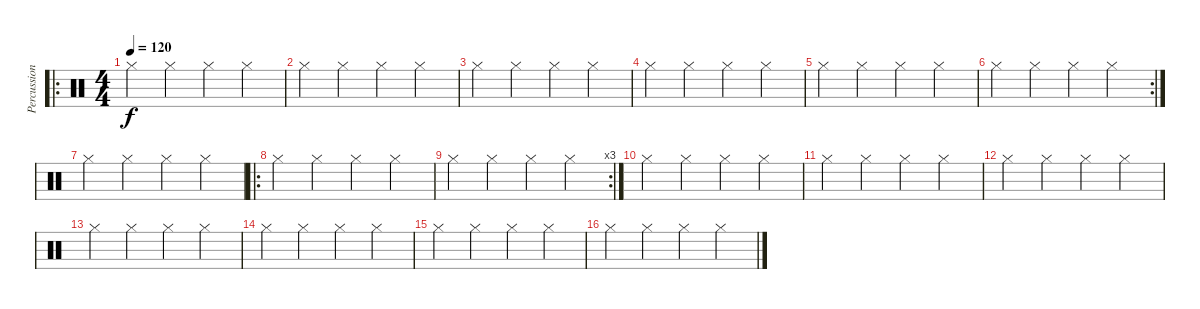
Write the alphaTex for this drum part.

\track ("Percussioni" "Percussion") {instrument percussion}
\staff {score}
\articulation defaults
\ro
\ts (4 4)
\tempo 120
\clef neutral
\ks c "Hi-Hat (closed)".4{dy f} "Hi-Hat (closed)".4 "Hi-Hat (closed)".4 "Hi-Hat (closed)".4
|
"Hi-Hat (closed)".4 "Hi-Hat (closed)".4 "Hi-Hat (closed)".4 "Hi-Hat (closed)".4 |
"Hi-Hat (closed)".4 "Hi-Hat (closed)".4 "Hi-Hat (closed)".4 "Hi-Hat (closed)".4 |
"Hi-Hat (closed)".4 "Hi-Hat (closed)".4 "Hi-Hat (closed)".4 "Hi-Hat (closed)".4 |
"Hi-Hat (closed)".4 "Hi-Hat (closed)".4 "Hi-Hat (closed)".4 "Hi-Hat (closed)".4 |
\rc 2 "Hi-Hat (closed)".4 "Hi-Hat (closed)".4 "Hi-Hat (closed)".4 "Hi-Hat (closed)".4
|
"Hi-Hat (closed)".4 "Hi-Hat (closed)".4 "Hi-Hat (closed)".4 "Hi-Hat (closed)".4 |
\ro "Hi-Hat (closed)".4 "Hi-Hat (closed)".4 "Hi-Hat (closed)".4 "Hi-Hat (closed)".4
|
\rc 3 "Hi-Hat (closed)".4 "Hi-Hat (closed)".4 "Hi-Hat (closed)".4 "Hi-Hat (closed)".4
|
"Hi-Hat (closed)".4 "Hi-Hat (closed)".4 "Hi-Hat (closed)".4 "Hi-Hat (closed)".4 |
"Hi-Hat (closed)".4 "Hi-Hat (closed)".4 "Hi-Hat (closed)".4 "Hi-Hat (closed)".4 |
"Hi-Hat (closed)".4 "Hi-Hat (closed)".4 "Hi-Hat (closed)".4 "Hi-Hat (closed)".4 |
"Hi-Hat (closed)".4 "Hi-Hat (closed)".4 "Hi-Hat (closed)".4 "Hi-Hat (closed)".4 |
"Hi-Hat (closed)".4 "Hi-Hat (closed)".4 "Hi-Hat (closed)".4 "Hi-Hat (closed)".4 |
"Hi-Hat (closed)".4 "Hi-Hat (closed)".4 "Hi-Hat (closed)".4 "Hi-Hat (closed)".4 |
"Hi-Hat (closed)".4 "Hi-Hat (closed)".4 "Hi-Hat (closed)".4 "Hi-Hat (closed)".4
